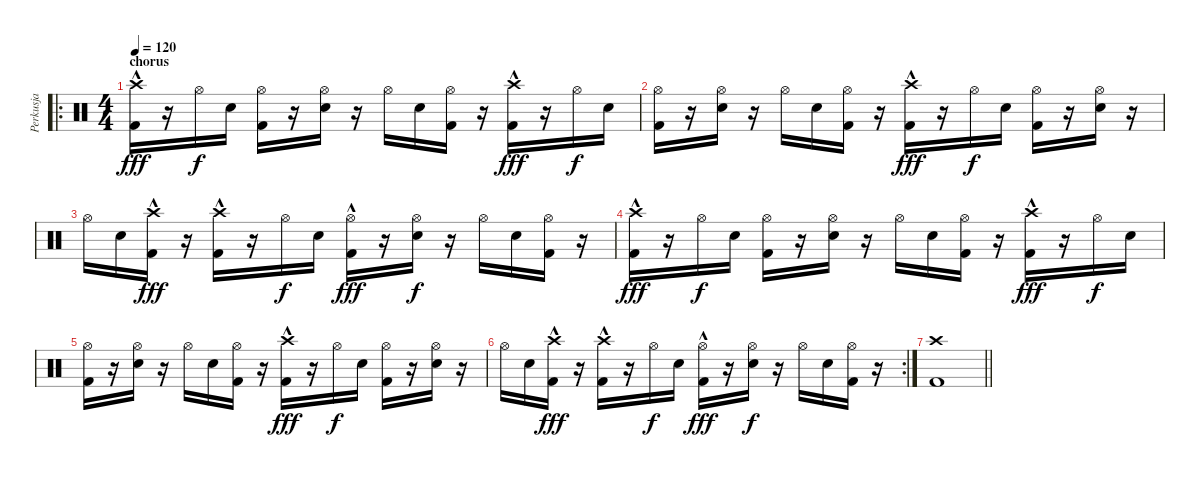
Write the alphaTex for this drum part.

\track ("Perkusja" "Perkusja") {instrument percussion}
\staff {score}
\articulation defaults
\ro
\ts (4 4)
\section ("" "chorus")
\tempo 120
\clef neutral
\ks c
("Crash high (hit)"{hac} "Kick (hit) 2").16{dy fff} r.16 "Hi-Hat (open)".16{dy f} "Electric Snare (hit)".16 ("Hi-Hat (open)" "Kick (hit) 2").16 r.16 ("Hi-Hat (open)" "Electric Snare (hit)").16 r.16 "Hi-Hat (open)".16 "Electric Snare (hit)".16 ("Hi-Hat (open)" "Kick (hit) 2").16 r.16 ("Crash high (hit)"{hac} "Kick (hit) 2").16{dy fff} r.16 "Hi-Hat (open)".16{dy f} "Electric Snare (hit)".16 |
("Hi-Hat (open)" "Kick (hit) 2").16 r.16 ("Hi-Hat (open)" "Electric Snare (hit)").16 r.16 "Hi-Hat (open)".16 "Electric Snare (hit)".16 ("Hi-Hat (open)" "Kick (hit) 2").16 r.16 ("Crash high (hit)"{hac} "Kick (hit) 2").16{dy fff} r.16 "Hi-Hat (open)".16{dy f} "Electric Snare (hit)".16 ("Hi-Hat (open)" "Kick (hit) 2").16 r.16 ("Hi-Hat (open)" "Electric Snare (hit)").16 r.16 |
"Hi-Hat (open)".16 "Electric Snare (hit)".16 ("Crash high (hit)"{hac} "Kick (hit) 2").16{dy fff} r.16 ("Crash high (hit)"{hac} "Kick (hit) 2").16 r.16 "Hi-Hat (open)".16{dy f} "Electric Snare (hit)".16 ("Hi-Hat (open)"{hac} "Kick (hit) 2").16{dy fff} r.16 ("Hi-Hat (open)" "Electric Snare (hit)").16{dy f} r.16 "Hi-Hat (open)".16 "Electric Snare (hit)".16 ("Hi-Hat (open)" "Kick (hit) 2").16 r.16 |
("Crash high (hit)"{hac} "Kick (hit) 2").16{dy fff} r.16 "Hi-Hat (open)".16{dy f} "Electric Snare (hit)".16 ("Hi-Hat (open)" "Kick (hit) 2").16 r.16 ("Hi-Hat (open)" "Electric Snare (hit)").16 r.16 "Hi-Hat (open)".16 "Electric Snare (hit)".16 ("Hi-Hat (open)" "Kick (hit) 2").16 r.16 ("Crash high (hit)"{hac} "Kick (hit) 2").16{dy fff} r.16 "Hi-Hat (open)".16{dy f} "Electric Snare (hit)".16 |
("Hi-Hat (open)" "Kick (hit) 2").16 r.16 ("Hi-Hat (open)" "Electric Snare (hit)").16 r.16 "Hi-Hat (open)".16 "Electric Snare (hit)".16 ("Hi-Hat (open)" "Kick (hit) 2").16 r.16 ("Crash high (hit)"{hac} "Kick (hit) 2").16{dy fff} r.16 "Hi-Hat (open)".16{dy f} "Electric Snare (hit)".16 ("Hi-Hat (open)" "Kick (hit) 2").16 r.16 ("Hi-Hat (open)" "Electric Snare (hit)").16 r.16 |
\rc 2 "Hi-Hat (open)".16 "Electric Snare (hit)".16
("Crash high (hit)"{hac} "Kick (hit) 2").16{dy fff} r.16 ("Crash high (hit)"{hac} "Kick (hit) 2").16 r.16 "Hi-Hat (open)".16{dy f} "Electric Snare (hit)".16 ("Hi-Hat (open)"{hac} "Kick (hit) 2").16{dy fff} r.16 ("Hi-Hat (open)" "Electric Snare (hit)").16{dy f} r.16 "Hi-Hat (open)".16 "Electric Snare (hit)".16 ("Hi-Hat (open)" "Kick (hit) 2").16 r.16 |
\barLineRight lightlight
("Crash high (hit)" "Kick (hit) 2").1
